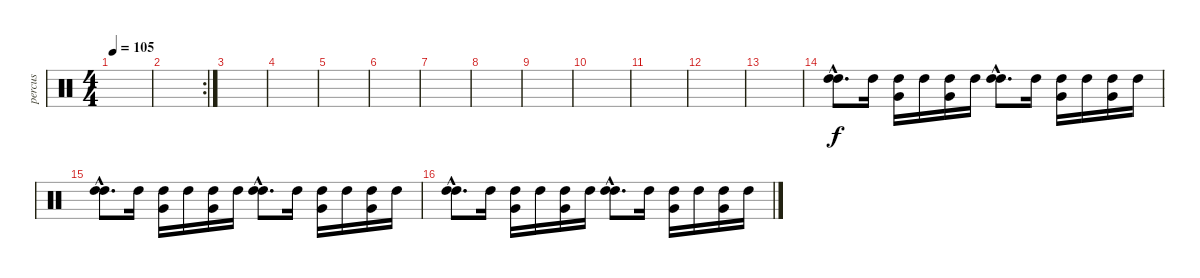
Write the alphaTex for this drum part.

\track ("percus" "percus") {instrument percussion}
\staff {score}
\articulation defaults
\ts (4 4)
\tempo 105
\clef neutral
\ks c
|
\rc 2
|
|
|
|
|
|
|
|
|
|
|
|
("High Tom (hit)"{hac} "High Tom (hit)"{hac}).8{d} "High Tom (hit)".16 ("High Tom (hit)" "Very Low Tom (hit)").16 "High Tom (hit)".16 ("High Tom (hit)" "Very Low Tom (hit)").16 "High Tom (hit)".16 ("High Tom (hit)"{hac} "High Tom (hit)"{hac}).8{d} "High Tom (hit)".16 ("High Tom (hit)" "Very Low Tom (hit)").16 "High Tom (hit)".16 ("High Tom (hit)" "Very Low Tom (hit)").16 "High Tom (hit)".16 |
("High Tom (hit)"{hac} "High Tom (hit)"{hac}).8{d} "High Tom (hit)".16 ("High Tom (hit)" "Very Low Tom (hit)").16 "High Tom (hit)".16 ("High Tom (hit)" "Very Low Tom (hit)").16 "High Tom (hit)".16 ("High Tom (hit)"{hac} "High Tom (hit)"{hac}).8{d} "High Tom (hit)".16 ("High Tom (hit)" "Very Low Tom (hit)").16 "High Tom (hit)".16 ("High Tom (hit)" "Very Low Tom (hit)").16 "High Tom (hit)".16 |
("High Tom (hit)"{hac} "High Tom (hit)"{hac}).8{d} "High Tom (hit)".16 ("High Tom (hit)" "Very Low Tom (hit)").16 "High Tom (hit)".16 ("High Tom (hit)" "Very Low Tom (hit)").16 "High Tom (hit)".16 ("High Tom (hit)"{hac} "High Tom (hit)"{hac}).8{d} "High Tom (hit)".16 ("High Tom (hit)" "Very Low Tom (hit)").16 "High Tom (hit)".16 ("High Tom (hit)" "Very Low Tom (hit)").16 "High Tom (hit)".16
